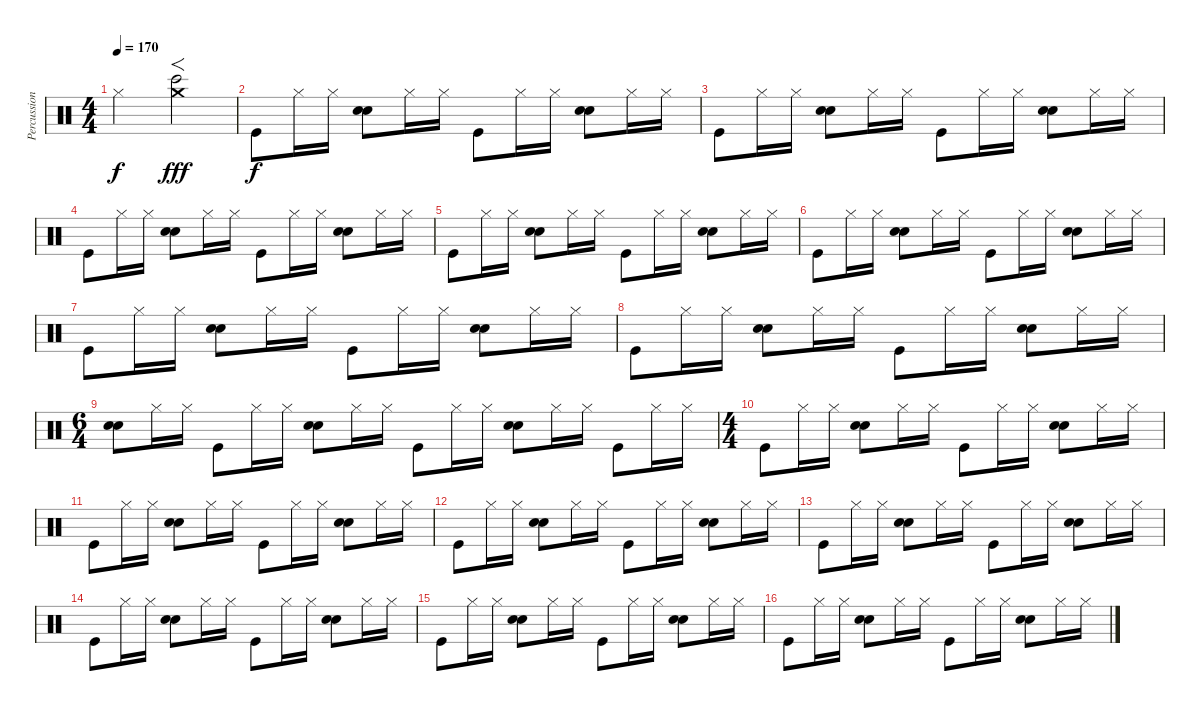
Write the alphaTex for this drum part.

\track ("Percussioni" "Percussion") {instrument percussion}
\staff {score}
\articulation defaults
\ts (4 4)
\tempo 170
\clef neutral
\ks c "Hi-Hat (closed)".2{dy f}
("Crash medium (hit)" "Bongo High (hit)").2{f dy fff} |
"Kick (hit)".8{dy f} "Hi-Hat (closed)".16 "Hi-Hat (closed)".16 ("Snare (hit) 2" "Electric Snare (hit)").8 "Hi-Hat (closed)".16 "Hi-Hat (closed)".16 "Kick (hit)".8 "Hi-Hat (closed)".16 "Hi-Hat (closed)".16 ("Snare (hit) 2" "Electric Snare (hit)").8 "Hi-Hat (closed)".16 "Hi-Hat (closed)".16 |
"Kick (hit)".8 "Hi-Hat (closed)".16 "Hi-Hat (closed)".16 ("Snare (hit) 2" "Electric Snare (hit)").8 "Hi-Hat (closed)".16 "Hi-Hat (closed)".16 "Kick (hit)".8 "Hi-Hat (closed)".16 "Hi-Hat (closed)".16 ("Snare (hit) 2" "Electric Snare (hit)").8 "Hi-Hat (closed)".16 "Hi-Hat (closed)".16 |
"Kick (hit)".8 "Hi-Hat (closed)".16 "Hi-Hat (closed)".16 ("Snare (hit) 2" "Electric Snare (hit)").8 "Hi-Hat (closed)".16 "Hi-Hat (closed)".16 "Kick (hit)".8 "Hi-Hat (closed)".16 "Hi-Hat (closed)".16 ("Snare (hit) 2" "Electric Snare (hit)").8 "Hi-Hat (closed)".16 "Hi-Hat (closed)".16 |
"Kick (hit)".8 "Hi-Hat (closed)".16 "Hi-Hat (closed)".16 ("Snare (hit) 2" "Electric Snare (hit)").8 "Hi-Hat (closed)".16 "Hi-Hat (closed)".16 "Kick (hit)".8 "Hi-Hat (closed)".16 "Hi-Hat (closed)".16 ("Snare (hit) 2" "Electric Snare (hit)").8 "Hi-Hat (closed)".16 "Hi-Hat (closed)".16 |
"Kick (hit)".8 "Hi-Hat (closed)".16 "Hi-Hat (closed)".16 ("Snare (hit) 2" "Electric Snare (hit)").8 "Hi-Hat (closed)".16 "Hi-Hat (closed)".16 "Kick (hit)".8 "Hi-Hat (closed)".16 "Hi-Hat (closed)".16 ("Snare (hit) 2" "Electric Snare (hit)").8 "Hi-Hat (closed)".16 "Hi-Hat (closed)".16 |
"Kick (hit)".8 "Hi-Hat (closed)".16 "Hi-Hat (closed)".16 ("Snare (hit) 2" "Electric Snare (hit)").8 "Hi-Hat (closed)".16 "Hi-Hat (closed)".16 "Kick (hit)".8 "Hi-Hat (closed)".16 "Hi-Hat (closed)".16 ("Snare (hit) 2" "Electric Snare (hit)").8 "Hi-Hat (closed)".16 "Hi-Hat (closed)".16 |
"Kick (hit)".8 "Hi-Hat (closed)".16 "Hi-Hat (closed)".16 ("Snare (hit) 2" "Electric Snare (hit)").8 "Hi-Hat (closed)".16 "Hi-Hat (closed)".16 "Kick (hit)".8 "Hi-Hat (closed)".16 "Hi-Hat (closed)".16 ("Snare (hit) 2" "Electric Snare (hit)").8 "Hi-Hat (closed)".16 "Hi-Hat (closed)".16 |
\ts (6 4)
("Electric Snare (hit)" "Snare (hit) 2").8 "Hi-Hat (closed)".16 "Hi-Hat (closed)".16 "Kick (hit)".8 "Hi-Hat (closed)".16 "Hi-Hat (closed)".16 ("Electric Snare (hit)" "Snare (hit) 2").8 "Hi-Hat (closed)".16 "Hi-Hat (closed)".16 "Kick (hit)".8 "Hi-Hat (closed)".16 "Hi-Hat (closed)".16 ("Electric Snare (hit)" "Snare (hit) 2").8 "Hi-Hat (closed)".16 "Hi-Hat (closed)".16 "Kick (hit)".8 "Hi-Hat (closed)".16 "Hi-Hat (closed)".16 |
\ts (4 4)
"Kick (hit)".8 "Hi-Hat (closed)".16 "Hi-Hat (closed)".16 ("Snare (hit) 2" "Electric Snare (hit)").8 "Hi-Hat (closed)".16 "Hi-Hat (closed)".16 "Kick (hit)".8 "Hi-Hat (closed)".16 "Hi-Hat (closed)".16 ("Snare (hit) 2" "Electric Snare (hit)").8 "Hi-Hat (closed)".16 "Hi-Hat (closed)".16 |
"Kick (hit)".8 "Hi-Hat (closed)".16 "Hi-Hat (closed)".16 ("Snare (hit) 2" "Electric Snare (hit)").8 "Hi-Hat (closed)".16 "Hi-Hat (closed)".16 "Kick (hit)".8 "Hi-Hat (closed)".16 "Hi-Hat (closed)".16 ("Snare (hit) 2" "Electric Snare (hit)").8 "Hi-Hat (closed)".16 "Hi-Hat (closed)".16 |
"Kick (hit)".8 "Hi-Hat (closed)".16 "Hi-Hat (closed)".16 ("Snare (hit) 2" "Electric Snare (hit)").8 "Hi-Hat (closed)".16 "Hi-Hat (closed)".16 "Kick (hit)".8 "Hi-Hat (closed)".16 "Hi-Hat (closed)".16 ("Snare (hit) 2" "Electric Snare (hit)").8 "Hi-Hat (closed)".16 "Hi-Hat (closed)".16 |
"Kick (hit)".8 "Hi-Hat (closed)".16 "Hi-Hat (closed)".16 ("Snare (hit) 2" "Electric Snare (hit)").8 "Hi-Hat (closed)".16 "Hi-Hat (closed)".16 "Kick (hit)".8 "Hi-Hat (closed)".16 "Hi-Hat (closed)".16 ("Snare (hit) 2" "Electric Snare (hit)").8 "Hi-Hat (closed)".16 "Hi-Hat (closed)".16 |
"Kick (hit)".8 "Hi-Hat (closed)".16 "Hi-Hat (closed)".16 ("Snare (hit) 2" "Electric Snare (hit)").8 "Hi-Hat (closed)".16 "Hi-Hat (closed)".16 "Kick (hit)".8 "Hi-Hat (closed)".16 "Hi-Hat (closed)".16 ("Snare (hit) 2" "Electric Snare (hit)").8 "Hi-Hat (closed)".16 "Hi-Hat (closed)".16 |
"Kick (hit)".8 "Hi-Hat (closed)".16 "Hi-Hat (closed)".16 ("Snare (hit) 2" "Electric Snare (hit)").8 "Hi-Hat (closed)".16 "Hi-Hat (closed)".16 "Kick (hit)".8 "Hi-Hat (closed)".16 "Hi-Hat (closed)".16 ("Snare (hit) 2" "Electric Snare (hit)").8 "Hi-Hat (closed)".16 "Hi-Hat (closed)".16 |
"Kick (hit)".8 "Hi-Hat (closed)".16 "Hi-Hat (closed)".16 ("Snare (hit) 2" "Electric Snare (hit)").8 "Hi-Hat (closed)".16 "Hi-Hat (closed)".16 "Kick (hit)".8 "Hi-Hat (closed)".16 "Hi-Hat (closed)".16 ("Snare (hit) 2" "Electric Snare (hit)").8 "Hi-Hat (closed)".16 "Hi-Hat (closed)".16
